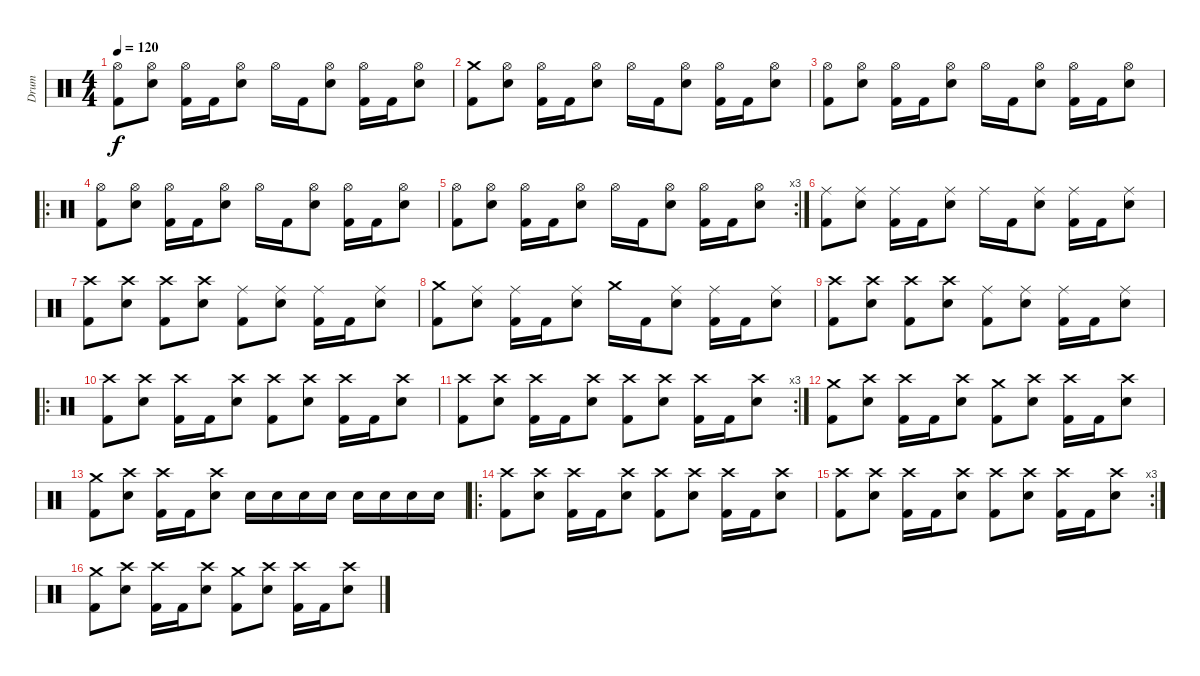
\track ("Drum" "Drum") {instrument percussion}
\staff {score}
\articulation defaults
\ts (4 4)
\tempo 120
\clef neutral
\ks c
("Hi-Hat (open)" "Kick (hit) 2").8{dy f} ("Hi-Hat (open)" "Electric Snare (hit)").8 ("Hi-Hat (open)" "Kick (hit) 2").16 "Kick (hit) 2".16 ("Hi-Hat (open)" "Electric Snare (hit)").8 "Hi-Hat (open)".16 "Kick (hit) 2".16 ("Hi-Hat (open)" "Electric Snare (hit)").8 ("Hi-Hat (open)" "Kick (hit) 2").16 "Kick (hit) 2".16 ("Hi-Hat (open)" "Electric Snare (hit)").8 |
("Crash medium (hit)" "Kick (hit) 2").8 ("Hi-Hat (open)" "Electric Snare (hit)").8 ("Hi-Hat (open)" "Kick (hit) 2").16 "Kick (hit) 2".16 ("Hi-Hat (open)" "Electric Snare (hit)").8 "Hi-Hat (open)".16 "Kick (hit) 2".16 ("Hi-Hat (open)" "Electric Snare (hit)").8 ("Hi-Hat (open)" "Kick (hit) 2").16 "Kick (hit) 2".16 ("Hi-Hat (open)" "Electric Snare (hit)").8 |
("Hi-Hat (open)" "Kick (hit) 2").8 ("Hi-Hat (open)" "Electric Snare (hit)").8 ("Hi-Hat (open)" "Kick (hit) 2").16 "Kick (hit) 2".16 ("Hi-Hat (open)" "Electric Snare (hit)").8 "Hi-Hat (open)".16 "Kick (hit) 2".16 ("Hi-Hat (open)" "Electric Snare (hit)").8 ("Hi-Hat (open)" "Kick (hit) 2").16 "Kick (hit) 2".16 ("Hi-Hat (open)" "Electric Snare (hit)").8 |
\ro
("Hi-Hat (open)" "Kick (hit) 2").8 ("Hi-Hat (open)" "Electric Snare (hit)").8 ("Hi-Hat (open)" "Kick (hit) 2").16 "Kick (hit) 2".16 ("Hi-Hat (open)" "Electric Snare (hit)").8 "Hi-Hat (open)".16 "Kick (hit) 2".16 ("Hi-Hat (open)" "Electric Snare (hit)").8 ("Hi-Hat (open)" "Kick (hit) 2").16 "Kick (hit) 2".16 ("Hi-Hat (open)" "Electric Snare (hit)").8 |
\rc 3
("Hi-Hat (open)" "Kick (hit) 2").8 ("Hi-Hat (open)" "Electric Snare (hit)").8 ("Hi-Hat (open)" "Kick (hit) 2").16 "Kick (hit) 2".16 ("Hi-Hat (open)" "Electric Snare (hit)").8 "Hi-Hat (open)".16 "Kick (hit) 2".16 ("Hi-Hat (open)" "Electric Snare (hit)").8 ("Hi-Hat (open)" "Kick (hit) 2").16 "Kick (hit) 2".16 ("Hi-Hat (open)" "Electric Snare (hit)").8 |
("Ride (middle)" "Kick (hit) 2").8 ("Ride (middle)" "Electric Snare (hit)").8 ("Ride (middle)" "Kick (hit) 2").16 "Kick (hit) 2".16 ("Ride (middle)" "Electric Snare (hit)").8 "Ride (middle)".16 "Kick (hit) 2".16 ("Ride (middle)" "Electric Snare (hit)").8 ("Ride (middle)" "Kick (hit) 2").16 "Kick (hit) 2".16 ("Ride (middle)" "Electric Snare (hit)").8 |
("Crash high (hit)" "Kick (hit) 2").8 ("Crash high (hit)" "Electric Snare (hit)").8 ("Crash high (hit)" "Kick (hit) 2").8 ("Crash high (hit)" "Electric Snare (hit)").8 ("Ride (middle)" "Kick (hit) 2").8 ("Ride (middle)" "Electric Snare (hit)").8 ("Ride (middle)" "Kick (hit) 2").16 "Kick (hit) 2".16 ("Ride (middle)" "Electric Snare (hit)").8 |
("Crash medium (hit)" "Kick (hit) 2").8 ("Ride (middle)" "Electric Snare (hit)").8 ("Ride (middle)" "Kick (hit) 2").16 "Kick (hit) 2".16 ("Ride (middle)" "Electric Snare (hit)").8 "Crash medium (hit)".16 "Kick (hit) 2".16 ("Ride (middle)" "Electric Snare (hit)").8 ("Ride (middle)" "Kick (hit) 2").16 "Kick (hit) 2".16 ("Ride (middle)" "Electric Snare (hit)").8 |
("Crash high (hit)" "Kick (hit) 2").8 ("Crash high (hit)" "Electric Snare (hit)").8 ("Crash high (hit)" "Kick (hit) 2").8 ("Crash high (hit)" "Electric Snare (hit)").8 ("Ride (middle)" "Kick (hit) 2").8 ("Ride (middle)" "Electric Snare (hit)").8 ("Ride (middle)" "Kick (hit) 2").16 "Kick (hit) 2".16 ("Ride (middle)" "Electric Snare (hit)").8 |
\ro
("Crash high (hit)" "Kick (hit) 2").8 ("Crash high (hit)" "Electric Snare (hit)").8 ("Crash high (hit)" "Kick (hit) 2").16 "Kick (hit) 2".16 ("Crash high (hit)" "Electric Snare (hit)").8 ("Crash high (hit)" "Kick (hit) 2").8 ("Crash high (hit)" "Electric Snare (hit)").8 ("Crash high (hit)" "Kick (hit) 2").16 "Kick (hit) 2".16 ("Crash high (hit)" "Electric Snare (hit)").8 |
\rc 3
("Crash high (hit)" "Kick (hit) 2").8 ("Crash high (hit)" "Electric Snare (hit)").8 ("Crash high (hit)" "Kick (hit) 2").16 "Kick (hit) 2".16 ("Crash high (hit)" "Electric Snare (hit)").8 ("Crash high (hit)" "Kick (hit) 2").8 ("Crash high (hit)" "Electric Snare (hit)").8 ("Crash high (hit)" "Kick (hit) 2").16 "Kick (hit) 2".16 ("Crash high (hit)" "Electric Snare (hit)").8 |
("Crash medium (hit)" "Kick (hit) 2").8 ("Crash high (hit)" "Electric Snare (hit)").8 ("Crash high (hit)" "Kick (hit) 2").16 "Kick (hit) 2".16 ("Crash high (hit)" "Electric Snare (hit)").8 ("Crash medium (hit)" "Kick (hit) 2").8 ("Crash high (hit)" "Electric Snare (hit)").8 ("Crash high (hit)" "Kick (hit) 2").16 "Kick (hit) 2".16 ("Crash high (hit)" "Electric Snare (hit)").8 |
("Crash medium (hit)" "Kick (hit) 2").8 ("Crash high (hit)" "Electric Snare (hit)").8 ("Crash high (hit)" "Kick (hit) 2").16 "Kick (hit) 2".16 ("Crash high (hit)" "Electric Snare (hit)").8 "Electric Snare (hit)".16 "Electric Snare (hit)".16 "Electric Snare (hit)".16 "Electric Snare (hit)".16 "Electric Snare (hit)".16 "Electric Snare (hit)".16 "Electric Snare (hit)".16 "Electric Snare (hit)".16 |
\ro
("Crash high (hit)" "Kick (hit) 2").8 ("Crash high (hit)" "Electric Snare (hit)").8 ("Crash high (hit)" "Kick (hit) 2").16 "Kick (hit) 2".16 ("Crash high (hit)" "Electric Snare (hit)").8 ("Crash high (hit)" "Kick (hit) 2").8 ("Crash high (hit)" "Electric Snare (hit)").8 ("Crash high (hit)" "Kick (hit) 2").16 "Kick (hit) 2".16 ("Crash high (hit)" "Electric Snare (hit)").8 |
\rc 3
("Crash high (hit)" "Kick (hit) 2").8 ("Crash high (hit)" "Electric Snare (hit)").8 ("Crash high (hit)" "Kick (hit) 2").16 "Kick (hit) 2".16 ("Crash high (hit)" "Electric Snare (hit)").8 ("Crash high (hit)" "Kick (hit) 2").8 ("Crash high (hit)" "Electric Snare (hit)").8 ("Crash high (hit)" "Kick (hit) 2").16 "Kick (hit) 2".16 ("Crash high (hit)" "Electric Snare (hit)").8 |
("Crash medium (hit)" "Kick (hit) 2").8 ("Crash high (hit)" "Electric Snare (hit)").8 ("Crash high (hit)" "Kick (hit) 2").16 "Kick (hit) 2".16 ("Crash high (hit)" "Electric Snare (hit)").8 ("Crash medium (hit)" "Kick (hit) 2").8 ("Crash high (hit)" "Electric Snare (hit)").8 ("Crash high (hit)" "Kick (hit) 2").16 "Kick (hit) 2".16 ("Crash high (hit)" "Electric Snare (hit)").8
